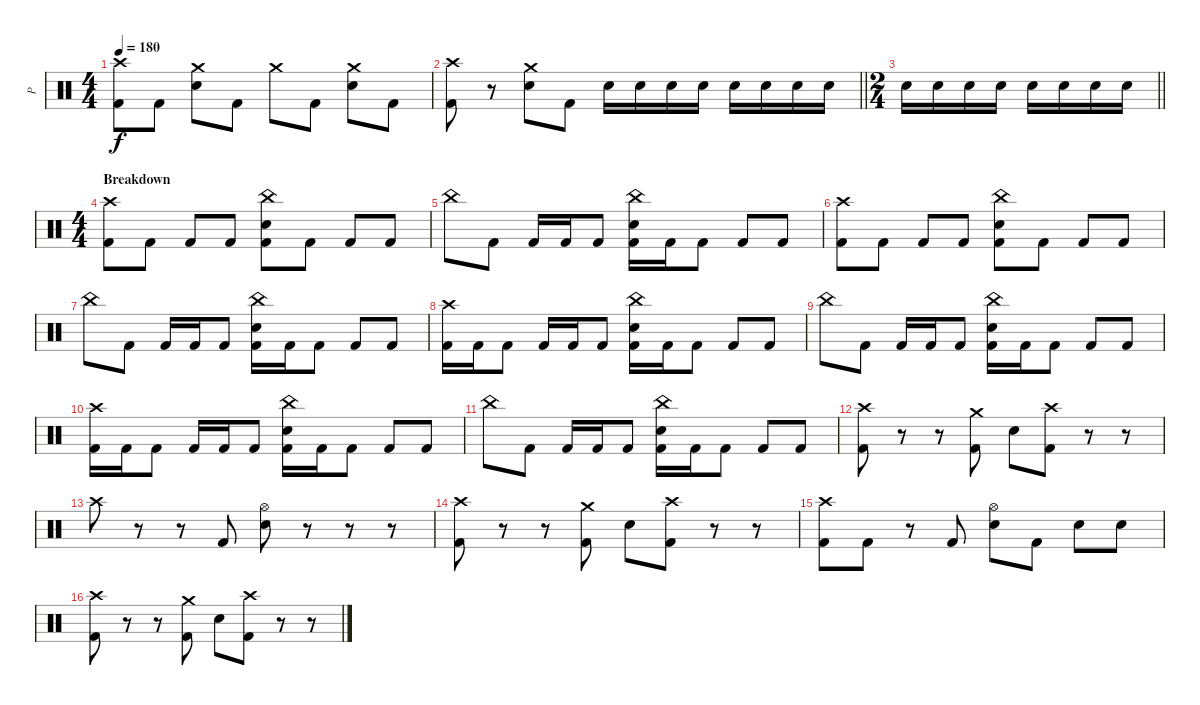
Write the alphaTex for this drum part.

\track ("P" "P") {instrument percussion}
\staff {score}
\articulation defaults
\ts (4 4)
\tempo 180
\clef neutral
\ks c
("Crash high (hit)" "Kick (hit) 2").8{dy f} "Kick (hit) 2".8 ("Crash medium (hit)" "Electric Snare (hit)").8 "Kick (hit) 2".8 "Crash medium (hit)".8 "Kick (hit) 2".8 ("Crash medium (hit)" "Electric Snare (hit)").8 "Kick (hit) 2".8 |
\barLineRight lightlight
("Crash high (hit)" "Kick (hit) 2").8 r.8 ("Crash medium (hit)" "Electric Snare (hit)").8 "Kick (hit) 2".8 "Electric Snare (hit)".16 "Electric Snare (hit)".16 "Electric Snare (hit)".16 "Electric Snare (hit)".16 "Electric Snare (hit)".16 "Electric Snare (hit)".16 "Electric Snare (hit)".16 "Electric Snare (hit)".16 |
\ts (2 4)
\barLineRight lightlight "Electric Snare (hit)".16 "Electric Snare (hit)".16 "Electric Snare (hit)".16 "Electric Snare (hit)".16 "Electric Snare (hit)".16 "Electric Snare (hit)".16 "Electric Snare (hit)".16 "Electric Snare (hit)".16
|
\ts (4 4)
\section ("" "Breakdown")
("Crash high (hit)" "Kick (hit) 2").8 "Kick (hit) 2".8 "Kick (hit) 2".8 "Kick (hit) 2".8 ("China (hit)" "Electric Snare (hit)" "Kick (hit) 2").8 "Kick (hit) 2".8 "Kick (hit) 2".8 "Kick (hit) 2".8 |
"China (hit)".8 "Kick (hit) 2".8 "Kick (hit) 2".16 "Kick (hit) 2".16 "Kick (hit) 2".8 ("China (hit)" "Electric Snare (hit)" "Kick (hit) 2").16 "Kick (hit) 2".16 "Kick (hit) 2".8 "Kick (hit) 2".8 "Kick (hit) 2".8 |
("Crash high (hit)" "Kick (hit) 2").8 "Kick (hit) 2".8 "Kick (hit) 2".8 "Kick (hit) 2".8 ("China (hit)" "Electric Snare (hit)" "Kick (hit) 2").8 "Kick (hit) 2".8 "Kick (hit) 2".8 "Kick (hit) 2".8 |
"China (hit)".8 "Kick (hit) 2".8 "Kick (hit) 2".16 "Kick (hit) 2".16 "Kick (hit) 2".8 ("China (hit)" "Electric Snare (hit)" "Kick (hit) 2").16 "Kick (hit) 2".16 "Kick (hit) 2".8 "Kick (hit) 2".8 "Kick (hit) 2".8 |
("Crash high (hit)" "Kick (hit) 2").16 "Kick (hit) 2".16 "Kick (hit) 2".8 "Kick (hit) 2".16 "Kick (hit) 2".16 "Kick (hit) 2".8 ("China (hit)" "Electric Snare (hit)" "Kick (hit) 2").16 "Kick (hit) 2".16 "Kick (hit) 2".8 "Kick (hit) 2".8 "Kick (hit) 2".8 |
"China (hit)".8 "Kick (hit) 2".8 "Kick (hit) 2".16 "Kick (hit) 2".16 "Kick (hit) 2".8 ("China (hit)" "Electric Snare (hit)" "Kick (hit) 2").16 "Kick (hit) 2".16 "Kick (hit) 2".8 "Kick (hit) 2".8 "Kick (hit) 2".8 |
("Crash high (hit)" "Kick (hit) 2").16 "Kick (hit) 2".16 "Kick (hit) 2".8 "Kick (hit) 2".16 "Kick (hit) 2".16 "Kick (hit) 2".8 ("China (hit)" "Electric Snare (hit)" "Kick (hit) 2").16 "Kick (hit) 2".16 "Kick (hit) 2".8 "Kick (hit) 2".8 "Kick (hit) 2".8 |
"China (hit)".8 "Kick (hit) 2".8 "Kick (hit) 2".16 "Kick (hit) 2".16 "Kick (hit) 2".8 ("China (hit)" "Electric Snare (hit)" "Kick (hit) 2").16 "Kick (hit) 2".16 "Kick (hit) 2".8 "Kick (hit) 2".8 "Kick (hit) 2".8 |
("Crash high (hit)" "Kick (hit) 2").8 r.8 r.8 ("Crash medium (hit)" "Kick (hit) 2").8 "Electric Snare (hit)".8 ("Crash high (hit)" "Kick (hit) 2").8 r.8 r.8 |
"Crash high (hit)".8 r.8 r.8 "Kick (hit) 2".8 ("Hi-Hat (open)" "Electric Snare (hit)").8 r.8 r.8 r.8 |
("Crash high (hit)" "Kick (hit) 2").8 r.8 r.8 ("Crash medium (hit)" "Kick (hit) 2").8 "Electric Snare (hit)".8 ("Crash high (hit)" "Kick (hit) 2").8 r.8 r.8 |
("Crash high (hit)" "Kick (hit) 2").8 "Kick (hit) 2".8 r.8 "Kick (hit) 2".8 ("Hi-Hat (open)" "Electric Snare (hit)").8 "Kick (hit) 2".8 "Electric Snare (hit)".8 "Electric Snare (hit)".8 |
("Crash high (hit)" "Kick (hit) 2").8 r.8 r.8 ("Crash medium (hit)" "Kick (hit) 2").8 "Electric Snare (hit)".8 ("Crash high (hit)" "Kick (hit) 2").8 r.8 r.8
